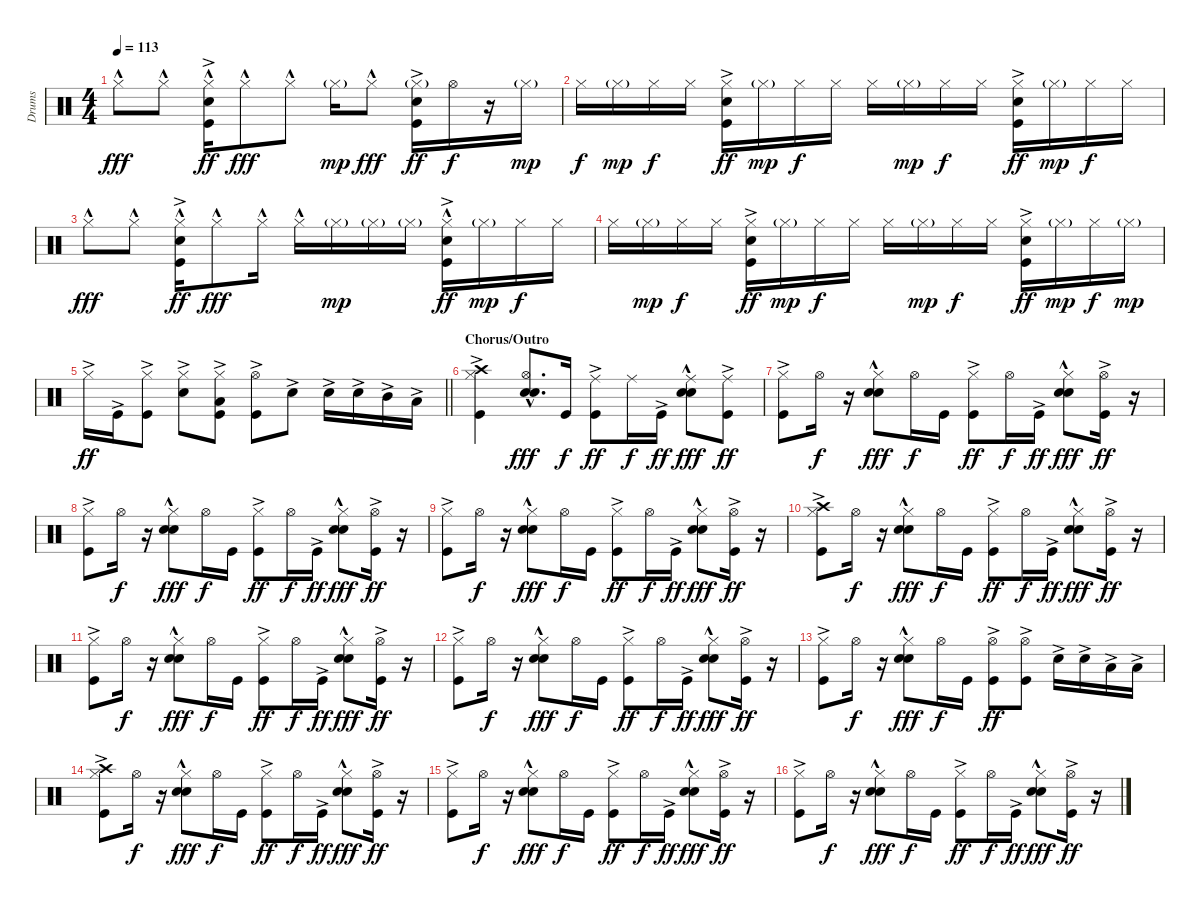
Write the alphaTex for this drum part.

\track ("Drums" "Drums") {instrument percussion}
\staff {score}
\articulation defaults
\ts (4 4)
\tempo 113
\clef neutral
\ks c "Hi-Hat (closed)"{hac}.8{dy fff} "Hi-Hat (closed)"{hac}.8
("Hi-Hat (closed)"{hac} "Hand Clap (hit)"{ac} "Kick (hit)"{ac}).16{dy ff} "Hi-Hat (closed)"{hac}.8{dy fff} "Hi-Hat (closed)"{hac}.8 "Hi-Hat (closed)"{g}.16{dy mp} "Hi-Hat (closed)"{hac}.8{dy fff} ("Hi-Hat (closed)"{g} "Hand Clap (hit)"{ac} "Kick (hit)"{ac}).16{dy ff} "Hi-Hat (open)".16{dy f} r.16 "Hi-Hat (closed)"{g}.16{dy mp} |
"Hi-Hat (closed)".16{dy f} "Hi-Hat (closed)"{g}.16{dy mp} "Hi-Hat (closed)".16{dy f} "Hi-Hat (closed)".16 ("Hi-Hat (closed)" "Hand Clap (hit)"{ac} "Kick (hit)"{ac}).16{dy ff} "Hi-Hat (closed)"{g}.16{dy mp} "Hi-Hat (closed)".16{dy f} "Hi-Hat (closed)".16 "Hi-Hat (closed)".16 "Hi-Hat (closed)"{g}.16{dy mp} "Hi-Hat (closed)".16{dy f} "Hi-Hat (closed)".16 ("Hi-Hat (closed)" "Hand Clap (hit)"{ac} "Kick (hit)"{ac}).16{dy ff} "Hi-Hat (closed)"{g}.16{dy mp} "Hi-Hat (closed)".16{dy f} "Hi-Hat (closed)".16 |
"Hi-Hat (closed)"{hac}.8{dy fff} "Hi-Hat (closed)"{hac}.8 ("Hi-Hat (closed)"{hac} "Hand Clap (hit)"{ac} "Kick (hit)"{ac}).16{dy ff} "Hi-Hat (closed)"{hac}.8{dy fff} "Hi-Hat (closed)"{hac}.16 "Hi-Hat (closed)"{hac}.16 "Hi-Hat (closed)"{g}.16{dy mp} "Hi-Hat (closed)"{g}.16 "Hi-Hat (closed)"{g}.16 ("Hi-Hat (closed)"{hac} "Hand Clap (hit)"{ac} "Kick (hit)"{ac}).16{dy ff} "Hi-Hat (closed)"{g}.16{dy mp} "Hi-Hat (closed)".16{dy f} "Hi-Hat (closed)".16 |
"Hi-Hat (closed)".16 "Hi-Hat (closed)"{g}.16{dy mp} "Hi-Hat (closed)".16{dy f} "Hi-Hat (closed)".16 ("Hi-Hat (closed)" "Hand Clap (hit)"{ac} "Kick (hit)"{ac}).16{dy ff} "Hi-Hat (closed)"{g}.16{dy mp} "Hi-Hat (closed)".16{dy f} "Hi-Hat (closed)".16 "Hi-Hat (closed)".16 "Hi-Hat (closed)"{g}.16{dy mp} "Hi-Hat (closed)".16{dy f} "Hi-Hat (closed)".16 ("Hi-Hat (closed)" "Hand Clap (hit)"{ac} "Kick (hit)"{ac}).16{dy ff} "Hi-Hat (closed)"{g}.16{dy mp} "Hi-Hat (closed)".16{dy f} "Hi-Hat (closed)"{g}.16{dy mp} |
\barLineRight lightlight "Hi-Hat (closed)"{ac}.16{dy ff} "Kick (hit)"{ac}.16
("Hi-Hat (closed)"{ac} "Kick (hit)"{ac}).8 ("Hi-Hat (closed)" "Snare (hit) 2"{ac}).8 ("Hi-Hat (closed)"{ac} "Low Tom (hit)"{ac} "Kick (hit)"{ac}).8 ("Hi-Hat (open)" "Kick (hit)"{ac}).8 "Snare (hit) 2"{ac}.8 "Snare (hit) 2"{ac}.16 "Snare (hit) 2"{ac}.16 "Mid Tom (hit)"{ac}.16 "Low Tom (hit)"{ac}.16 |
\section ("" "Chorus/Outro")
("Crash high (hit)" "Hi-Hat (closed)" "Kick (hit)"{ac}).4 ("Hi-Hat (open)" "Hand Clap (hit)"{hac} "Snare (hit) 2").8{d dy fff} "Kick (hit)".16{dy f} ("Ride (middle)" "Kick (hit)"{ac}).8{dy ff} "Ride (middle)".16{dy f} "Kick (hit)"{ac}.16{dy ff} ("Ride (middle)" "Hand Clap (hit)"{hac} "Snare (hit) 2").8{dy fff} ("Ride (middle)" "Kick (hit)"{ac}).8{dy ff} |
("Hi-Hat (closed)" "Kick (hit)"{ac}).8 "Hi-Hat (open)".16{dy f} r.16 ("Hi-Hat (closed)" "Hand Clap (hit)"{hac} "Snare (hit) 2").8{dy fff} "Hi-Hat (open)".16{dy f} "Kick (hit)".16 ("Hi-Hat (closed)" "Kick (hit)"{ac}).8{dy ff} "Hi-Hat (open)".16{dy f} "Kick (hit)"{ac}.16{dy ff} ("Hi-Hat (closed)" "Hand Clap (hit)"{hac} "Snare (hit) 2").8{dy fff} ("Hi-Hat (open)" "Kick (hit)"{ac}).16{dy ff} r.16 |
("Hi-Hat (closed)" "Kick (hit)"{ac}).8 "Hi-Hat (open)".16{dy f} r.16 ("Hi-Hat (closed)" "Hand Clap (hit)"{hac} "Snare (hit) 2").8{dy fff} "Hi-Hat (open)".16{dy f} "Kick (hit)".16 ("Hi-Hat (closed)" "Kick (hit)"{ac}).8{dy ff} "Hi-Hat (open)".16{dy f} "Kick (hit)"{ac}.16{dy ff} ("Hi-Hat (closed)" "Hand Clap (hit)"{hac} "Snare (hit) 2").8{dy fff} ("Hi-Hat (open)" "Kick (hit)"{ac}).16{dy ff} r.16 |
("Hi-Hat (closed)" "Kick (hit)"{ac}).8 "Hi-Hat (open)".16{dy f} r.16 ("Hi-Hat (closed)" "Hand Clap (hit)"{hac} "Snare (hit) 2").8{dy fff} "Hi-Hat (open)".16{dy f} "Kick (hit)".16 ("Hi-Hat (closed)" "Kick (hit)"{ac}).8{dy ff} "Hi-Hat (open)".16{dy f} "Kick (hit)"{ac}.16{dy ff} ("Hi-Hat (closed)" "Hand Clap (hit)"{hac} "Snare (hit) 2").8{dy fff} ("Hi-Hat (open)" "Kick (hit)"{ac}).16{dy ff} r.16 |
("Crash high (hit)" "Hi-Hat (closed)" "Kick (hit)"{ac}).8 "Hi-Hat (open)".16{dy f} r.16 ("Hi-Hat (closed)" "Hand Clap (hit)"{hac} "Snare (hit) 2").8{dy fff} "Hi-Hat (open)".16{dy f} "Kick (hit)".16 ("Hi-Hat (closed)" "Kick (hit)"{ac}).8{dy ff} "Hi-Hat (open)".16{dy f} "Kick (hit)"{ac}.16{dy ff} ("Hi-Hat (closed)" "Hand Clap (hit)"{hac} "Snare (hit) 2").8{dy fff} ("Hi-Hat (open)" "Kick (hit)"{ac}).16{dy ff} r.16 |
("Hi-Hat (closed)" "Kick (hit)"{ac}).8 "Hi-Hat (open)".16{dy f} r.16 ("Hi-Hat (closed)" "Hand Clap (hit)"{hac} "Snare (hit) 2").8{dy fff} "Hi-Hat (open)".16{dy f} "Kick (hit)".16 ("Hi-Hat (closed)" "Kick (hit)"{ac}).8{dy ff} "Hi-Hat (open)".16{dy f} "Kick (hit)"{ac}.16{dy ff} ("Hi-Hat (closed)" "Hand Clap (hit)"{hac} "Snare (hit) 2").8{dy fff} ("Hi-Hat (open)" "Kick (hit)"{ac}).16{dy ff} r.16 |
("Hi-Hat (closed)" "Kick (hit)"{ac}).8 "Hi-Hat (open)".16{dy f} r.16 ("Hi-Hat (closed)" "Hand Clap (hit)"{hac} "Snare (hit) 2").8{dy fff} "Hi-Hat (open)".16{dy f} "Kick (hit)".16 ("Hi-Hat (closed)" "Kick (hit)"{ac}).8{dy ff} "Hi-Hat (open)".16{dy f} "Kick (hit)"{ac}.16{dy ff} ("Hi-Hat (closed)" "Hand Clap (hit)"{hac} "Snare (hit) 2").8{dy fff} ("Hi-Hat (open)" "Kick (hit)"{ac}).16{dy ff} r.16 |
("Hi-Hat (closed)" "Kick (hit)"{ac}).8 "Hi-Hat (open)".16{dy f} r.16 ("Hi-Hat (closed)" "Hand Clap (hit)"{hac} "Snare (hit) 2").8{dy fff} "Hi-Hat (open)".16{dy f} "Kick (hit)".16 ("Hi-Hat (open)" "Kick (hit)"{ac}).8{dy ff} ("Hi-Hat (open)" "Kick (hit)"{ac}).8 "Snare (hit) 2"{ac}.16 "Snare (hit) 2"{ac}.16 "Low Tom (hit)"{ac}.16 "Low Tom (hit)"{ac}.16 |
("Crash high (hit)" "Hi-Hat (closed)" "Kick (hit)"{ac}).8 "Hi-Hat (open)".16{dy f} r.16 ("Hi-Hat (closed)" "Hand Clap (hit)"{hac} "Snare (hit) 2").8{dy fff} "Hi-Hat (open)".16{dy f} "Kick (hit)".16 ("Hi-Hat (closed)" "Kick (hit)"{ac}).8{dy ff} "Hi-Hat (open)".16{dy f} "Kick (hit)"{ac}.16{dy ff} ("Hi-Hat (closed)" "Hand Clap (hit)"{hac} "Snare (hit) 2").8{dy fff} ("Hi-Hat (open)" "Kick (hit)"{ac}).16{dy ff} r.16 |
("Hi-Hat (closed)" "Kick (hit)"{ac}).8 "Hi-Hat (open)".16{dy f} r.16 ("Hi-Hat (closed)" "Hand Clap (hit)"{hac} "Snare (hit) 2").8{dy fff} "Hi-Hat (open)".16{dy f} "Kick (hit)".16 ("Hi-Hat (closed)" "Kick (hit)"{ac}).8{dy ff} "Hi-Hat (open)".16{dy f} "Kick (hit)"{ac}.16{dy ff} ("Hi-Hat (closed)" "Hand Clap (hit)"{hac} "Snare (hit) 2").8{dy fff} ("Hi-Hat (open)" "Kick (hit)"{ac}).16{dy ff} r.16 |
("Hi-Hat (closed)" "Kick (hit)"{ac}).8 "Hi-Hat (open)".16{dy f} r.16 ("Hi-Hat (closed)" "Hand Clap (hit)"{hac} "Snare (hit) 2").8{dy fff} "Hi-Hat (open)".16{dy f} "Kick (hit)".16 ("Hi-Hat (closed)" "Kick (hit)"{ac}).8{dy ff} "Hi-Hat (open)".16{dy f} "Kick (hit)"{ac}.16{dy ff} ("Hi-Hat (closed)" "Hand Clap (hit)"{hac} "Snare (hit) 2").8{dy fff} ("Hi-Hat (open)" "Kick (hit)"{ac}).16{dy ff} r.16
